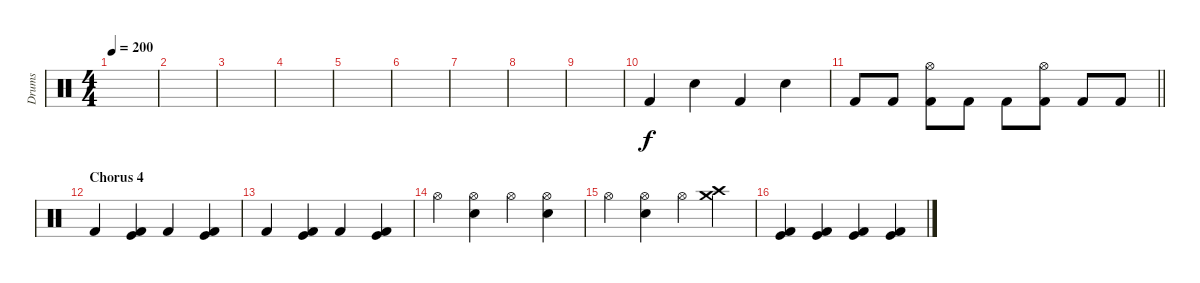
\track ("Drums" "Drums") {instrument percussion}
\staff {score}
\articulation defaults
\ts (4 4)
\tempo 200
\clef neutral
\ks c
|
|
|
|
|
|
|
|
|
"Kick (hit) 2".4 "Snare (hit) 2".4 "Kick (hit) 2".4 "Snare (hit) 2".4 |
\barLineRight lightlight "Kick (hit) 2".8 "Kick (hit) 2".8
("Hi-Hat (open)" "Kick (hit) 2").8 "Kick (hit) 2".8 "Kick (hit) 2".8 ("Hi-Hat (open)" "Kick (hit) 2").8 "Kick (hit) 2".8 "Kick (hit) 2".8 |
\section ("" "Chorus 4")
"Kick (hit) 2".4 ("Kick (hit)" "Kick (hit) 2").4 "Kick (hit) 2".4 ("Kick (hit)" "Kick (hit) 2").4 |
"Kick (hit) 2".4 ("Kick (hit)" "Kick (hit) 2").4 "Kick (hit) 2".4 ("Kick (hit)" "Kick (hit) 2").4 |
"Hi-Hat (open)".4 ("Hi-Hat (open)" "Snare (hit) 2").4 "Hi-Hat (open)".4 ("Hi-Hat (open)" "Snare (hit) 2").4 |
"Hi-Hat (open)".4 ("Hi-Hat (open)" "Snare (hit) 2").4 "Hi-Hat (open)".4 ("Crash high (hit)" "Crash medium (hit)").4 |
("Kick (hit)" "Kick (hit) 2").4 ("Kick (hit)" "Kick (hit) 2").4 ("Kick (hit)" "Kick (hit) 2").4 ("Kick (hit)" "Kick (hit) 2").4
